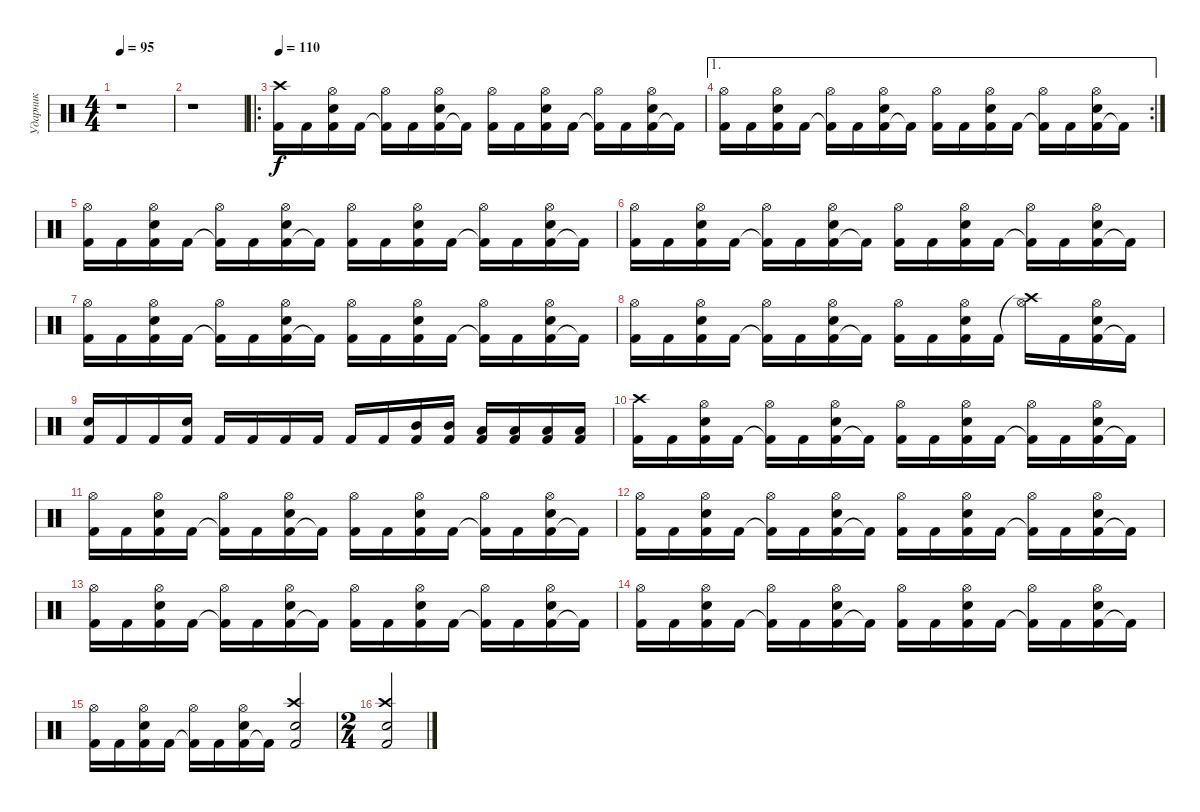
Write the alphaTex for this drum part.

\track ("Ударник" "Ударник") {instrument percussion}
\staff
\articulation defaults
\ts (4 4)
\tempo 95
\clef neutral
\ks c
r.1{dy f} |
r.1 |
\ro
\tempo 110
("Kick (hit) 2" "Crash high (hit)").16 "Kick (hit) 2".16 ("Kick (hit) 2" "Snare (hit) 2" "Hi-Hat (open)").16 "Kick (hit) 2".16 ("Kick (hit) 2"{t} "Hi-Hat (open)").16 "Kick (hit) 2".16 ("Kick (hit) 2" "Snare (hit) 2" "Hi-Hat (open)").16 "Kick (hit) 2"{t}.16 ("Kick (hit) 2" "Hi-Hat (open)").16 "Kick (hit) 2".16 ("Kick (hit) 2" "Snare (hit) 2" "Hi-Hat (open)").16 "Kick (hit) 2".16 ("Kick (hit) 2"{t} "Hi-Hat (open)").16 "Kick (hit) 2".16 ("Kick (hit) 2" "Snare (hit) 2" "Hi-Hat (open)").16 "Kick (hit) 2"{t}.16 |
\ae 1
\rc 2
("Kick (hit) 2" "Hi-Hat (open)").16 "Kick (hit) 2".16 ("Kick (hit) 2" "Snare (hit) 2" "Hi-Hat (open)").16 "Kick (hit) 2".16 ("Kick (hit) 2"{t} "Hi-Hat (open)").16 "Kick (hit) 2".16 ("Kick (hit) 2" "Snare (hit) 2" "Hi-Hat (open)").16 "Kick (hit) 2"{t}.16 ("Kick (hit) 2" "Hi-Hat (open)").16 "Kick (hit) 2".16 ("Kick (hit) 2" "Snare (hit) 2" "Hi-Hat (open)").16 "Kick (hit) 2".16 ("Kick (hit) 2"{t} "Hi-Hat (open)").16 "Kick (hit) 2".16 ("Kick (hit) 2" "Snare (hit) 2" "Hi-Hat (open)").16 "Kick (hit) 2"{t}.16 |
("Kick (hit) 2" "Hi-Hat (open)").16 "Kick (hit) 2".16 ("Kick (hit) 2" "Snare (hit) 2" "Hi-Hat (open)").16 "Kick (hit) 2".16 ("Kick (hit) 2"{t} "Hi-Hat (open)").16 "Kick (hit) 2".16 ("Kick (hit) 2" "Snare (hit) 2" "Hi-Hat (open)").16 "Kick (hit) 2"{t}.16 ("Kick (hit) 2" "Hi-Hat (open)").16 "Kick (hit) 2".16 ("Kick (hit) 2" "Snare (hit) 2" "Hi-Hat (open)").16 "Kick (hit) 2".16 ("Kick (hit) 2"{t} "Hi-Hat (open)").16 "Kick (hit) 2".16 ("Kick (hit) 2" "Snare (hit) 2" "Hi-Hat (open)").16 "Kick (hit) 2"{t}.16 |
("Kick (hit) 2" "Hi-Hat (open)").16 "Kick (hit) 2".16 ("Kick (hit) 2" "Snare (hit) 2" "Hi-Hat (open)").16 "Kick (hit) 2".16 ("Kick (hit) 2"{t} "Hi-Hat (open)").16 "Kick (hit) 2".16 ("Kick (hit) 2" "Snare (hit) 2" "Hi-Hat (open)").16 "Kick (hit) 2"{t}.16 ("Kick (hit) 2" "Hi-Hat (open)").16 "Kick (hit) 2".16 ("Kick (hit) 2" "Snare (hit) 2" "Hi-Hat (open)").16 "Kick (hit) 2".16 ("Kick (hit) 2"{t} "Hi-Hat (open)").16 "Kick (hit) 2".16 ("Kick (hit) 2" "Snare (hit) 2" "Hi-Hat (open)").16 "Kick (hit) 2"{t}.16 |
("Kick (hit) 2" "Hi-Hat (open)").16 "Kick (hit) 2".16 ("Kick (hit) 2" "Snare (hit) 2" "Hi-Hat (open)").16 "Kick (hit) 2".16 ("Kick (hit) 2"{t} "Hi-Hat (open)").16 "Kick (hit) 2".16 ("Kick (hit) 2" "Snare (hit) 2" "Hi-Hat (open)").16 "Kick (hit) 2"{t}.16 ("Kick (hit) 2" "Hi-Hat (open)").16 "Kick (hit) 2".16 ("Kick (hit) 2" "Snare (hit) 2" "Hi-Hat (open)").16 "Kick (hit) 2".16 ("Kick (hit) 2"{t} "Hi-Hat (open)").16 "Kick (hit) 2".16 ("Kick (hit) 2" "Snare (hit) 2" "Hi-Hat (open)").16 "Kick (hit) 2"{t}.16 |
("Kick (hit) 2" "Hi-Hat (open)").16 "Kick (hit) 2".16 ("Kick (hit) 2" "Snare (hit) 2" "Hi-Hat (open)").16 "Kick (hit) 2".16 ("Kick (hit) 2"{t} "Hi-Hat (open)").16 "Kick (hit) 2".16 ("Kick (hit) 2" "Snare (hit) 2" "Hi-Hat (open)").16 "Kick (hit) 2"{t}.16 ("Kick (hit) 2" "Hi-Hat (open)").16 "Kick (hit) 2".16 ("Kick (hit) 2" "Snare (hit) 2" "Hi-Hat (open)").16 "Kick (hit) 2".16 ("Crash high (hit)"{t} "Hi-Hat (open)").16 "Kick (hit) 2".16 ("Kick (hit) 2" "Snare (hit) 2" "Hi-Hat (open)").16 "Kick (hit) 2"{t}.16 |
("Kick (hit) 2" "Snare (hit) 2").16 "Kick (hit) 2".16 "Kick (hit) 2".16 ("Kick (hit) 2" "Snare (hit) 2").16 "Kick (hit) 2".16 "Kick (hit) 2".16 "Kick (hit) 2".16 "Kick (hit) 2".16 "Kick (hit) 2".16 "Kick (hit) 2".16 ("Kick (hit) 2" "Mid Tom (hit)").16 ("Kick (hit) 2" "Mid Tom (hit)").16 ("Kick (hit) 2" "Low Tom (hit)").16 ("Kick (hit) 2" "Low Tom (hit)").16 ("Kick (hit) 2" "Low Tom (hit)").16 ("Kick (hit) 2" "Low Floor Tom (hit)").16 |
("Kick (hit) 2" "Crash high (hit)").16 "Kick (hit) 2".16 ("Kick (hit) 2" "Snare (hit) 2" "Hi-Hat (open)").16 "Kick (hit) 2".16 ("Kick (hit) 2"{t} "Hi-Hat (open)").16 "Kick (hit) 2".16 ("Kick (hit) 2" "Snare (hit) 2" "Hi-Hat (open)").16 "Kick (hit) 2"{t}.16 ("Kick (hit) 2" "Hi-Hat (open)").16 "Kick (hit) 2".16 ("Kick (hit) 2" "Snare (hit) 2" "Hi-Hat (open)").16 "Kick (hit) 2".16 ("Kick (hit) 2"{t} "Hi-Hat (open)").16 "Kick (hit) 2".16 ("Kick (hit) 2" "Snare (hit) 2" "Hi-Hat (open)").16 "Kick (hit) 2"{t}.16 |
("Kick (hit) 2" "Hi-Hat (open)").16 "Kick (hit) 2".16 ("Kick (hit) 2" "Snare (hit) 2" "Hi-Hat (open)").16 "Kick (hit) 2".16 ("Kick (hit) 2"{t} "Hi-Hat (open)").16 "Kick (hit) 2".16 ("Kick (hit) 2" "Snare (hit) 2" "Hi-Hat (open)").16 "Kick (hit) 2"{t}.16 ("Kick (hit) 2" "Hi-Hat (open)").16 "Kick (hit) 2".16 ("Kick (hit) 2" "Snare (hit) 2" "Hi-Hat (open)").16 "Kick (hit) 2".16 ("Kick (hit) 2"{t} "Hi-Hat (open)").16 "Kick (hit) 2".16 ("Kick (hit) 2" "Snare (hit) 2" "Hi-Hat (open)").16 "Kick (hit) 2"{t}.16 |
("Kick (hit) 2" "Hi-Hat (open)").16 "Kick (hit) 2".16 ("Kick (hit) 2" "Snare (hit) 2" "Hi-Hat (open)").16 "Kick (hit) 2".16 ("Kick (hit) 2"{t} "Hi-Hat (open)").16 "Kick (hit) 2".16 ("Kick (hit) 2" "Snare (hit) 2" "Hi-Hat (open)").16 "Kick (hit) 2"{t}.16 ("Kick (hit) 2" "Hi-Hat (open)").16 "Kick (hit) 2".16 ("Kick (hit) 2" "Snare (hit) 2" "Hi-Hat (open)").16 "Kick (hit) 2".16 ("Kick (hit) 2"{t} "Hi-Hat (open)").16 "Kick (hit) 2".16 ("Kick (hit) 2" "Snare (hit) 2" "Hi-Hat (open)").16 "Kick (hit) 2"{t}.16 |
("Kick (hit) 2" "Hi-Hat (open)").16 "Kick (hit) 2".16 ("Kick (hit) 2" "Snare (hit) 2" "Hi-Hat (open)").16 "Kick (hit) 2".16 ("Kick (hit) 2"{t} "Hi-Hat (open)").16 "Kick (hit) 2".16 ("Kick (hit) 2" "Snare (hit) 2" "Hi-Hat (open)").16 "Kick (hit) 2"{t}.16 ("Kick (hit) 2" "Hi-Hat (open)").16 "Kick (hit) 2".16 ("Kick (hit) 2" "Snare (hit) 2" "Hi-Hat (open)").16 "Kick (hit) 2".16 ("Kick (hit) 2"{t} "Hi-Hat (open)").16 "Kick (hit) 2".16 ("Kick (hit) 2" "Snare (hit) 2" "Hi-Hat (open)").16 "Kick (hit) 2"{t}.16 |
("Kick (hit) 2" "Hi-Hat (open)").16 "Kick (hit) 2".16 ("Kick (hit) 2" "Snare (hit) 2" "Hi-Hat (open)").16 "Kick (hit) 2".16 ("Kick (hit) 2"{t} "Hi-Hat (open)").16 "Kick (hit) 2".16 ("Kick (hit) 2" "Snare (hit) 2" "Hi-Hat (open)").16 "Kick (hit) 2"{t}.16 ("Kick (hit) 2" "Hi-Hat (open)").16 "Kick (hit) 2".16 ("Kick (hit) 2" "Snare (hit) 2" "Hi-Hat (open)").16 "Kick (hit) 2".16 ("Kick (hit) 2"{t} "Hi-Hat (open)").16 "Kick (hit) 2".16 ("Kick (hit) 2" "Snare (hit) 2" "Hi-Hat (open)").16 "Kick (hit) 2"{t}.16 |
("Kick (hit) 2" "Hi-Hat (open)").16 "Kick (hit) 2".16 ("Kick (hit) 2" "Snare (hit) 2" "Hi-Hat (open)").16 "Kick (hit) 2".16 ("Kick (hit) 2"{t} "Hi-Hat (open)").16 "Kick (hit) 2".16 ("Kick (hit) 2" "Snare (hit) 2" "Hi-Hat (open)").16 "Kick (hit) 2"{t}.16 ("Kick (hit) 2" "Snare (hit) 2" "Crash high (hit)").2 |
\ts (2 4)
("Kick (hit) 2" "Snare (hit) 2" "Crash high (hit)").2
